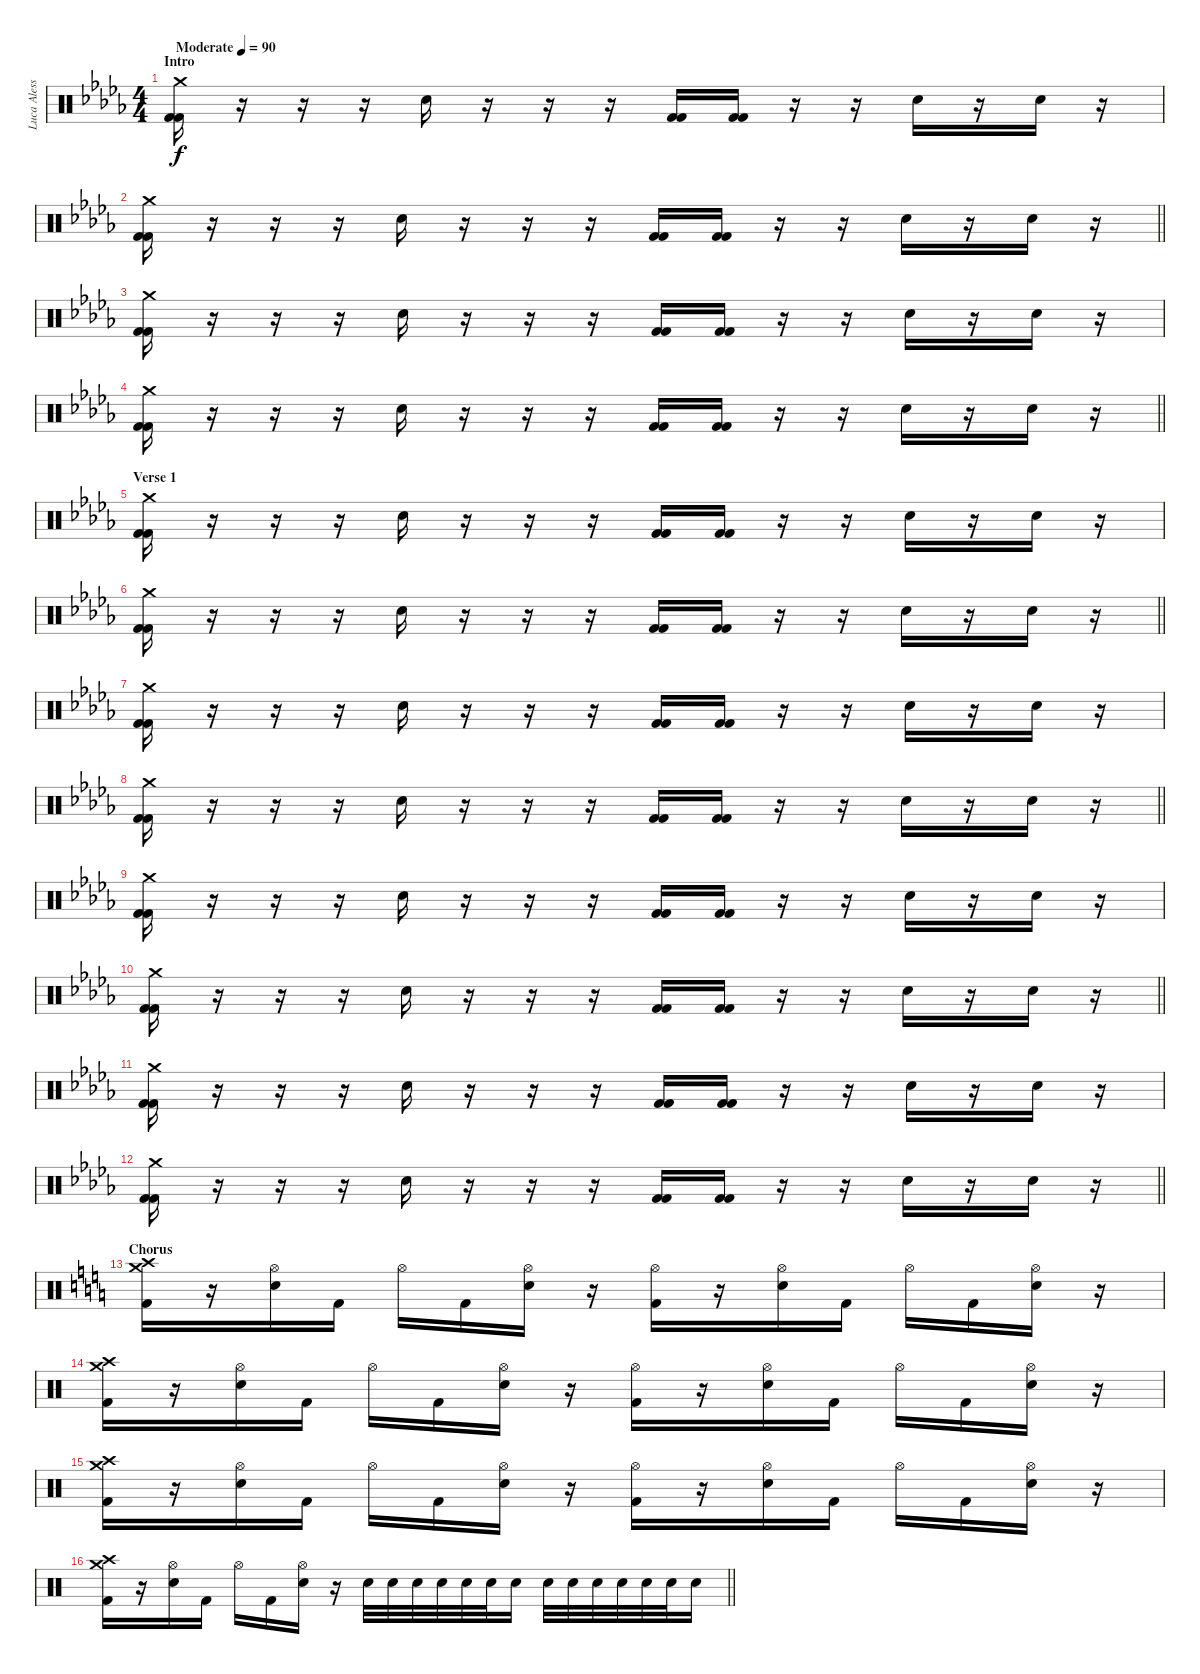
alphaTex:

\track ("Luca Alessandrelli (Drums)" "Luca Aless") {instrument percussion}
\staff {score}
\articulation defaults
\ts (4 4)
\section ("" "Intro")
\tempo (90 "Moderate")
\clef neutral
\ks db
("Crash medium (hit)" "Kick (hit) 2" "Kick (hit) 2").16{dy f} r.16 r.16 r.16 "Electric Snare (hit)".16 r.16 r.16 r.16 ("Kick (hit) 2" "Kick (hit) 2").16 ("Kick (hit) 2" "Kick (hit) 2").16 r.16 r.16 "Electric Snare (hit)".16 r.16 "Electric Snare (hit)".16 r.16 |
\barLineRight lightlight
("Crash medium (hit)" "Kick (hit) 2" "Kick (hit) 2").16 r.16 r.16 r.16 "Electric Snare (hit)".16 r.16 r.16 r.16 ("Kick (hit) 2" "Kick (hit) 2").16 ("Kick (hit) 2" "Kick (hit) 2").16 r.16 r.16 "Electric Snare (hit)".16 r.16 "Electric Snare (hit)".16 r.16 |
("Crash medium (hit)" "Kick (hit) 2" "Kick (hit) 2").16 r.16 r.16 r.16 "Electric Snare (hit)".16 r.16 r.16 r.16 ("Kick (hit) 2" "Kick (hit) 2").16 ("Kick (hit) 2" "Kick (hit) 2").16 r.16 r.16 "Electric Snare (hit)".16 r.16 "Electric Snare (hit)".16 r.16 |
\barLineRight lightlight
("Crash medium (hit)" "Kick (hit) 2" "Kick (hit) 2").16 r.16 r.16 r.16 "Electric Snare (hit)".16 r.16 r.16 r.16 ("Kick (hit) 2" "Kick (hit) 2").16 ("Kick (hit) 2" "Kick (hit) 2").16 r.16 r.16 "Electric Snare (hit)".16 r.16 "Electric Snare (hit)".16 r.16 |
\section ("" "Verse 1")
("Crash medium (hit)" "Kick (hit) 2" "Kick (hit) 2").16 r.16 r.16 r.16 "Electric Snare (hit)".16 r.16 r.16 r.16 ("Kick (hit) 2" "Kick (hit) 2").16 ("Kick (hit) 2" "Kick (hit) 2").16 r.16 r.16 "Electric Snare (hit)".16 r.16 "Electric Snare (hit)".16 r.16 |
\barLineRight lightlight
("Crash medium (hit)" "Kick (hit) 2" "Kick (hit) 2").16 r.16 r.16 r.16 "Electric Snare (hit)".16 r.16 r.16 r.16 ("Kick (hit) 2" "Kick (hit) 2").16 ("Kick (hit) 2" "Kick (hit) 2").16 r.16 r.16 "Electric Snare (hit)".16 r.16 "Electric Snare (hit)".16 r.16 |
("Crash medium (hit)" "Kick (hit) 2" "Kick (hit) 2").16 r.16 r.16 r.16 "Electric Snare (hit)".16 r.16 r.16 r.16 ("Kick (hit) 2" "Kick (hit) 2").16 ("Kick (hit) 2" "Kick (hit) 2").16 r.16 r.16 "Electric Snare (hit)".16 r.16 "Electric Snare (hit)".16 r.16 |
\barLineRight lightlight
("Crash medium (hit)" "Kick (hit) 2" "Kick (hit) 2").16 r.16 r.16 r.16 "Electric Snare (hit)".16 r.16 r.16 r.16 ("Kick (hit) 2" "Kick (hit) 2").16 ("Kick (hit) 2" "Kick (hit) 2").16 r.16 r.16 "Electric Snare (hit)".16 r.16 "Electric Snare (hit)".16 r.16 |
("Crash medium (hit)" "Kick (hit) 2" "Kick (hit) 2").16 r.16 r.16 r.16 "Electric Snare (hit)".16 r.16 r.16 r.16 ("Kick (hit) 2" "Kick (hit) 2").16 ("Kick (hit) 2" "Kick (hit) 2").16 r.16 r.16 "Electric Snare (hit)".16 r.16 "Electric Snare (hit)".16 r.16 |
\barLineRight lightlight
("Crash medium (hit)" "Kick (hit) 2" "Kick (hit) 2").16 r.16 r.16 r.16 "Electric Snare (hit)".16 r.16 r.16 r.16 ("Kick (hit) 2" "Kick (hit) 2").16 ("Kick (hit) 2" "Kick (hit) 2").16 r.16 r.16 "Electric Snare (hit)".16 r.16 "Electric Snare (hit)".16 r.16 |
("Crash medium (hit)" "Kick (hit) 2" "Kick (hit) 2").16 r.16 r.16 r.16 "Electric Snare (hit)".16 r.16 r.16 r.16 ("Kick (hit) 2" "Kick (hit) 2").16 ("Kick (hit) 2" "Kick (hit) 2").16 r.16 r.16 "Electric Snare (hit)".16 r.16 "Electric Snare (hit)".16 r.16 |
\barLineRight lightlight
("Crash medium (hit)" "Kick (hit) 2" "Kick (hit) 2").16 r.16 r.16 r.16 "Electric Snare (hit)".16 r.16 r.16 r.16 ("Kick (hit) 2" "Kick (hit) 2").16 ("Kick (hit) 2" "Kick (hit) 2").16 r.16 r.16 "Electric Snare (hit)".16 r.16 "Electric Snare (hit)".16 r.16 |
\section ("" "Chorus")
\ks c
("Crash high (hit)" "Crash medium (hit)" "Kick (hit) 2").16 r.16 ("Hi-Hat (open)" "Electric Snare (hit)").16 "Kick (hit) 2".16 "Hi-Hat (open)".16 "Kick (hit) 2".16 ("Hi-Hat (open)" "Electric Snare (hit)").16 r.16 ("Hi-Hat (open)" "Kick (hit) 2").16 r.16 ("Hi-Hat (open)" "Electric Snare (hit)").16 "Kick (hit) 2".16 "Hi-Hat (open)".16 "Kick (hit) 2".16 ("Hi-Hat (open)" "Electric Snare (hit)").16 r.16 |
("Crash high (hit)" "Crash medium (hit)" "Kick (hit) 2").16 r.16 ("Hi-Hat (open)" "Electric Snare (hit)").16 "Kick (hit) 2".16 "Hi-Hat (open)".16 "Kick (hit) 2".16 ("Hi-Hat (open)" "Electric Snare (hit)").16 r.16 ("Hi-Hat (open)" "Kick (hit) 2").16 r.16 ("Hi-Hat (open)" "Electric Snare (hit)").16 "Kick (hit) 2".16 "Hi-Hat (open)".16 "Kick (hit) 2".16 ("Hi-Hat (open)" "Electric Snare (hit)").16 r.16 |
("Crash high (hit)" "Crash medium (hit)" "Kick (hit) 2").16 r.16 ("Hi-Hat (open)" "Electric Snare (hit)").16 "Kick (hit) 2".16 "Hi-Hat (open)".16 "Kick (hit) 2".16 ("Hi-Hat (open)" "Electric Snare (hit)").16 r.16 ("Hi-Hat (open)" "Kick (hit) 2").16 r.16 ("Hi-Hat (open)" "Electric Snare (hit)").16 "Kick (hit) 2".16 "Hi-Hat (open)".16 "Kick (hit) 2".16 ("Hi-Hat (open)" "Electric Snare (hit)").16 r.16 |
\barLineRight lightlight
("Crash high (hit)" "Crash medium (hit)" "Kick (hit) 2").16 r.16 ("Hi-Hat (open)" "Electric Snare (hit)").16 "Kick (hit) 2".16 "Hi-Hat (open)".16 "Kick (hit) 2".16 ("Hi-Hat (open)" "Electric Snare (hit)").16 r.16 "Snare (hit) 2".32 "Snare (hit) 2".32 "Snare (hit) 2".32 "Snare (hit) 2".32 "Snare (hit) 2".32 "Snare (hit) 2".32 "Snare (hit) 2".16 "Snare (hit) 2".32 "Snare (hit) 2".32 "Snare (hit) 2".32 "Snare (hit) 2".32 "Snare (hit) 2".32 "Snare (hit) 2".32 "Snare (hit) 2".16
